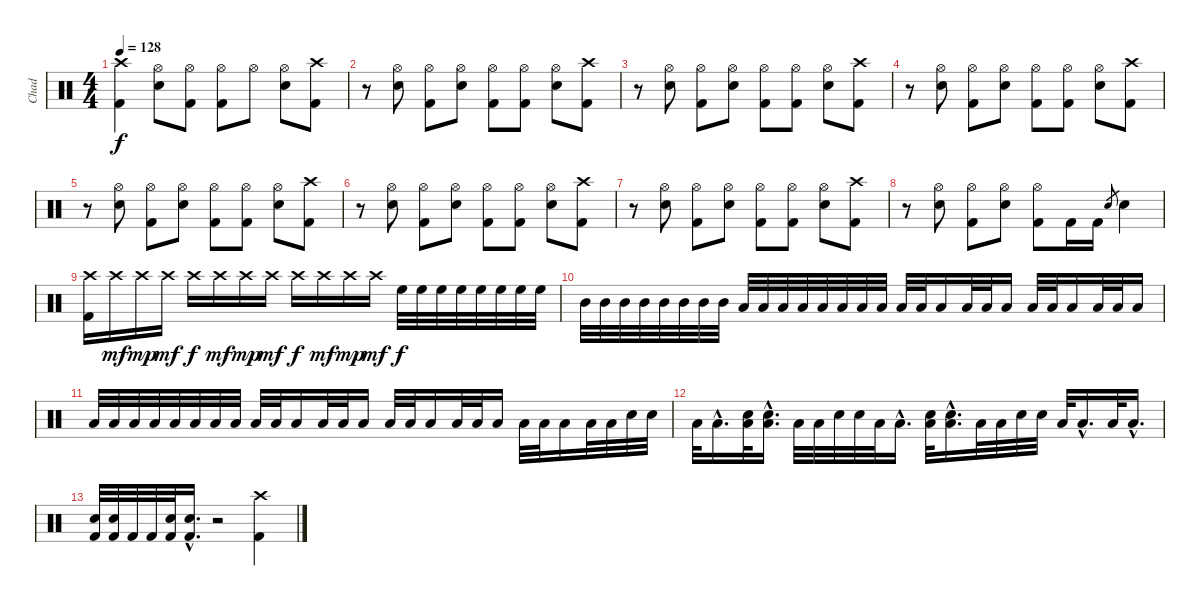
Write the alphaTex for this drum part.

\track ("Chad" "Chad") {instrument percussion}
\staff {score}
\articulation defaults
\ts (4 4)
\tempo 128
\clef neutral
\ks c
("Crash high (hit)" "Kick (hit) 2").4{dy f} ("Hi-Hat (open)" "Snare (hit) 2").8 ("Hi-Hat (open)" "Kick (hit) 2").8 ("Hi-Hat (open)" "Kick (hit) 2").8 "Hi-Hat (open)".8 ("Hi-Hat (open)" "Snare (hit) 2").8 ("Crash high (hit)" "Kick (hit) 2").8 |
r.8 ("Hi-Hat (open)" "Snare (hit) 2").8 ("Hi-Hat (open)" "Kick (hit) 2").8 ("Hi-Hat (open)" "Snare (hit) 2").8 ("Hi-Hat (open)" "Kick (hit) 2").8 ("Hi-Hat (open)" "Kick (hit) 2").8 ("Hi-Hat (open)" "Snare (hit) 2").8 ("Crash high (hit)" "Kick (hit) 2").8 |
r.8 ("Hi-Hat (open)" "Snare (hit) 2").8 ("Hi-Hat (open)" "Kick (hit) 2").8 ("Hi-Hat (open)" "Snare (hit) 2").8 ("Hi-Hat (open)" "Kick (hit) 2").8 ("Hi-Hat (open)" "Kick (hit) 2").8 ("Hi-Hat (open)" "Snare (hit) 2").8 ("Crash high (hit)" "Kick (hit) 2").8 |
r.8 ("Hi-Hat (open)" "Snare (hit) 2").8 ("Hi-Hat (open)" "Kick (hit) 2").8 ("Hi-Hat (open)" "Snare (hit) 2").8 ("Hi-Hat (open)" "Kick (hit) 2").8 ("Hi-Hat (open)" "Kick (hit) 2").8 ("Hi-Hat (open)" "Snare (hit) 2").8 ("Crash high (hit)" "Kick (hit) 2").8 |
r.8 ("Hi-Hat (open)" "Snare (hit) 2").8 ("Hi-Hat (open)" "Kick (hit) 2").8 ("Hi-Hat (open)" "Snare (hit) 2").8 ("Hi-Hat (open)" "Kick (hit) 2").8 ("Hi-Hat (open)" "Kick (hit) 2").8 ("Hi-Hat (open)" "Snare (hit) 2").8 ("Crash high (hit)" "Kick (hit) 2").8 |
r.8 ("Hi-Hat (open)" "Snare (hit) 2").8 ("Hi-Hat (open)" "Kick (hit) 2").8 ("Hi-Hat (open)" "Snare (hit) 2").8 ("Hi-Hat (open)" "Kick (hit) 2").8 ("Hi-Hat (open)" "Kick (hit) 2").8 ("Hi-Hat (open)" "Snare (hit) 2").8 ("Crash high (hit)" "Kick (hit) 2").8 |
r.8 ("Hi-Hat (open)" "Snare (hit) 2").8 ("Hi-Hat (open)" "Kick (hit) 2").8 ("Hi-Hat (open)" "Snare (hit) 2").8 ("Hi-Hat (open)" "Kick (hit) 2").8 ("Hi-Hat (open)" "Kick (hit) 2").8 ("Hi-Hat (open)" "Snare (hit) 2").8 ("Crash high (hit)" "Kick (hit) 2").8 |
r.8 ("Hi-Hat (open)" "Snare (hit) 2").8 ("Hi-Hat (open)" "Kick (hit) 2").8 ("Hi-Hat (open)" "Snare (hit) 2").8 ("Hi-Hat (open)" "Kick (hit) 2").8 "Kick (hit) 2".16 "Kick (hit) 2".16 "Snare (hit) 2".8{gr} "Snare (hit) 2".4 |
("Crash high (hit)" "Kick (hit) 2").16 "Crash high (hit)".16{dy mf} "Crash high (hit)".16{dy mp} "Crash high (hit)".16{dy mf} "Crash high (hit)".16{dy f} "Crash high (hit)".16{dy mf} "Crash high (hit)".16{dy mp} "Crash high (hit)".16{dy mf} "Crash high (hit)".16{dy f} "Crash high (hit)".16{dy mf} "Crash high (hit)".16{dy mp} "Crash high (hit)".16{dy mf} "High Floor Tom (hit)".32{dy f} "High Floor Tom (hit)".32 "High Floor Tom (hit)".32 "High Floor Tom (hit)".32 "High Floor Tom (hit)".32 "High Floor Tom (hit)".32 "High Floor Tom (hit)".32 "High Floor Tom (hit)".32 |
"Mid Tom (hit)".32 "Mid Tom (hit)".32 "Mid Tom (hit)".32 "Mid Tom (hit)".32 "Mid Tom (hit)".32 "Mid Tom (hit)".32 "Mid Tom (hit)".32 "Mid Tom (hit)".32 "Low Tom (hit)".32 "Low Tom (hit)".32 "Low Tom (hit)".32 "Low Tom (hit)".32 "Low Tom (hit)".32 "Low Tom (hit)".32 "Low Tom (hit)".32 "Low Tom (hit)".32 "Low Tom (hit)".32 "Low Tom (hit)".32 "Low Tom (hit)".16 "Low Tom (hit)".32 "Low Tom (hit)".32 "Low Tom (hit)".16 "Low Tom (hit)".32 "Low Tom (hit)".32 "Low Tom (hit)".16 "Low Tom (hit)".32 "Low Tom (hit)".32 "Low Tom (hit)".16 |
"Low Tom (hit)".32 "Low Tom (hit)".32 "Low Tom (hit)".32 "Low Tom (hit)".32 "Low Tom (hit)".32 "Low Tom (hit)".32 "Low Tom (hit)".32 "Low Tom (hit)".32 "Low Tom (hit)".32 "Low Tom (hit)".32 "Low Tom (hit)".16 "Low Tom (hit)".32 "Low Tom (hit)".32 "Low Tom (hit)".16 "Low Tom (hit)".32 "Low Tom (hit)".32 "Low Tom (hit)".16 "Low Tom (hit)".32 "Low Tom (hit)".32 "Low Tom (hit)".16 "Low Tom (hit)".32 "Low Tom (hit)".32 "Low Tom (hit)".16 "Low Tom (hit)".32 "Low Tom (hit)".32 "Snare (hit) 2".32 "Snare (hit) 2".32 |
"Low Tom (hit)".32 "Low Tom (hit)"{hac}.16{d} ("Snare (hit) 2" "Low Tom (hit)").32 ("Snare (hit) 2"{hac} "Low Tom (hit)"{hac}).16{d} "Low Tom (hit)".32 "Low Tom (hit)".32 "Snare (hit) 2".32 "Snare (hit) 2".32 "Low Tom (hit)".32 "Low Tom (hit)"{hac}.16{d} ("Snare (hit) 2" "Low Tom (hit)").32 ("Snare (hit) 2"{hac} "Low Tom (hit)"{hac}).16{d} "Low Tom (hit)".32 "Low Tom (hit)".32 "Snare (hit) 2".32 "Snare (hit) 2".32 "Low Tom (hit)".32 "Low Tom (hit)"{hac}.16{d} "Low Tom (hit)".32 "Low Tom (hit)"{hac}.16{d} |
("Snare (hit) 2" "Kick (hit) 2").32 ("Snare (hit) 2" "Kick (hit) 2").32 "Kick (hit) 2".32 "Kick (hit) 2".32 ("Snare (hit) 2" "Kick (hit) 2").32 ("Snare (hit) 2"{hac} "Kick (hit) 2"{hac}).16{d} r.2 ("Crash high (hit)" "Kick (hit) 2").4
